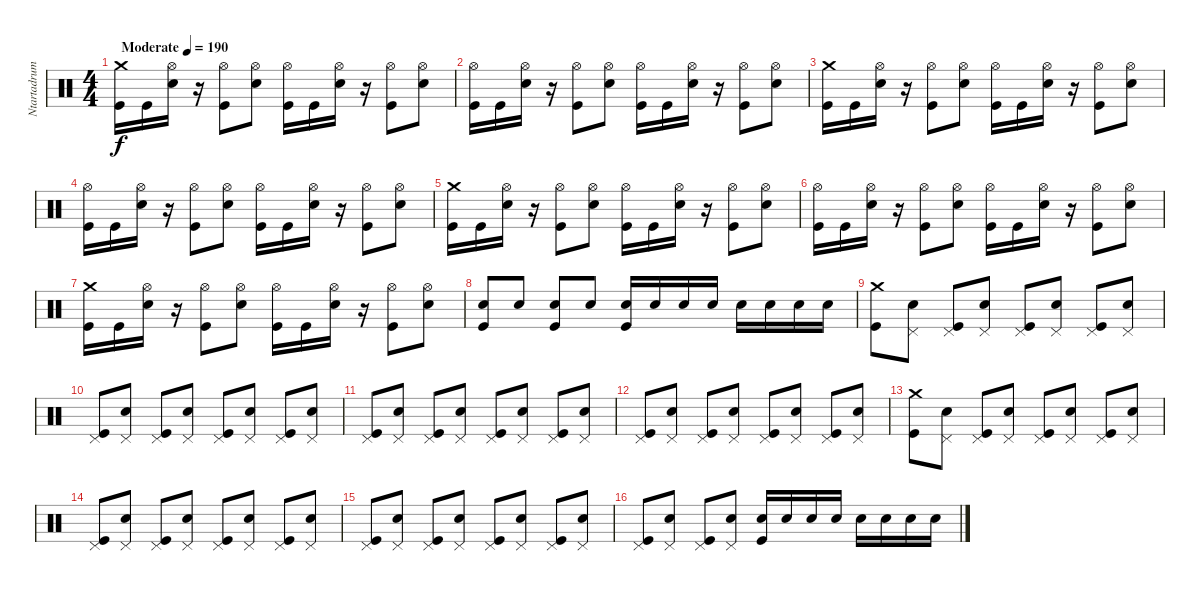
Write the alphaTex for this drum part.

\track ("Ntartadrum" "Ntartadrum") {instrument percussion}
\staff {score}
\articulation defaults
\ts (4 4)
\tempo (190 "Moderate")
\clef neutral
\ks c
("Kick (hit)" "Crash medium (hit)").16{dy f} "Kick (hit)".16 ("Electric Snare (hit)" "Hi-Hat (open)").16 r.16 ("Kick (hit)" "Hi-Hat (open)").8 ("Electric Snare (hit)" "Hi-Hat (open)").8 ("Kick (hit)" "Hi-Hat (open)").16 "Kick (hit)".16 ("Electric Snare (hit)" "Hi-Hat (open)").16 r.16 ("Kick (hit)" "Hi-Hat (open)").8 ("Electric Snare (hit)" "Hi-Hat (open)").8 |
("Kick (hit)" "Hi-Hat (open)").16 "Kick (hit)".16 ("Electric Snare (hit)" "Hi-Hat (open)").16 r.16 ("Kick (hit)" "Hi-Hat (open)").8 ("Electric Snare (hit)" "Hi-Hat (open)").8 ("Kick (hit)" "Hi-Hat (open)").16 "Kick (hit)".16 ("Electric Snare (hit)" "Hi-Hat (open)").16 r.16 ("Kick (hit)" "Hi-Hat (open)").8 ("Electric Snare (hit)" "Hi-Hat (open)").8 |
("Kick (hit)" "Crash medium (hit)").16 "Kick (hit)".16 ("Electric Snare (hit)" "Hi-Hat (open)").16 r.16 ("Kick (hit)" "Hi-Hat (open)").8 ("Electric Snare (hit)" "Hi-Hat (open)").8 ("Kick (hit)" "Hi-Hat (open)").16 "Kick (hit)".16 ("Electric Snare (hit)" "Hi-Hat (open)").16 r.16 ("Kick (hit)" "Hi-Hat (open)").8 ("Electric Snare (hit)" "Hi-Hat (open)").8 |
("Kick (hit)" "Hi-Hat (open)").16 "Kick (hit)".16 ("Electric Snare (hit)" "Hi-Hat (open)").16 r.16 ("Kick (hit)" "Hi-Hat (open)").8 ("Electric Snare (hit)" "Hi-Hat (open)").8 ("Kick (hit)" "Hi-Hat (open)").16 "Kick (hit)".16 ("Electric Snare (hit)" "Hi-Hat (open)").16 r.16 ("Kick (hit)" "Hi-Hat (open)").8 ("Electric Snare (hit)" "Hi-Hat (open)").8 |
("Kick (hit)" "Crash medium (hit)").16 "Kick (hit)".16 ("Electric Snare (hit)" "Hi-Hat (open)").16 r.16 ("Kick (hit)" "Hi-Hat (open)").8 ("Electric Snare (hit)" "Hi-Hat (open)").8 ("Kick (hit)" "Hi-Hat (open)").16 "Kick (hit)".16 ("Electric Snare (hit)" "Hi-Hat (open)").16 r.16 ("Kick (hit)" "Hi-Hat (open)").8 ("Electric Snare (hit)" "Hi-Hat (open)").8 |
("Kick (hit)" "Hi-Hat (open)").16 "Kick (hit)".16 ("Electric Snare (hit)" "Hi-Hat (open)").16 r.16 ("Kick (hit)" "Hi-Hat (open)").8 ("Electric Snare (hit)" "Hi-Hat (open)").8 ("Kick (hit)" "Hi-Hat (open)").16 "Kick (hit)".16 ("Electric Snare (hit)" "Hi-Hat (open)").16 r.16 ("Kick (hit)" "Hi-Hat (open)").8 ("Electric Snare (hit)" "Hi-Hat (open)").8 |
("Kick (hit)" "Crash medium (hit)").16 "Kick (hit)".16 ("Electric Snare (hit)" "Hi-Hat (open)").16 r.16 ("Kick (hit)" "Hi-Hat (open)").8 ("Electric Snare (hit)" "Hi-Hat (open)").8 ("Kick (hit)" "Hi-Hat (open)").16 "Kick (hit)".16 ("Electric Snare (hit)" "Hi-Hat (open)").16 r.16 ("Kick (hit)" "Hi-Hat (open)").8 ("Electric Snare (hit)" "Hi-Hat (open)").8 |
("Kick (hit)" "Electric Snare (hit)").8 "Electric Snare (hit)".8 ("Kick (hit)" "Electric Snare (hit)").8 "Electric Snare (hit)".8 ("Kick (hit)" "Electric Snare (hit)").16 "Electric Snare (hit)".16 "Electric Snare (hit)".16 "Electric Snare (hit)".16 "Electric Snare (hit)".16 "Electric Snare (hit)".16 "Electric Snare (hit)".16 "Electric Snare (hit)".16 |
("Kick (hit)" "Crash medium (hit)").8 ("Electric Snare (hit)" "Pedal Hi-Hat (hit)").8 ("Kick (hit)" "Pedal Hi-Hat (hit)").8 ("Electric Snare (hit)" "Pedal Hi-Hat (hit)").8 ("Kick (hit)" "Pedal Hi-Hat (hit)").8 ("Electric Snare (hit)" "Pedal Hi-Hat (hit)").8 ("Kick (hit)" "Pedal Hi-Hat (hit)").8 ("Electric Snare (hit)" "Pedal Hi-Hat (hit)").8 |
("Kick (hit)" "Pedal Hi-Hat (hit)").8 ("Electric Snare (hit)" "Pedal Hi-Hat (hit)").8 ("Kick (hit)" "Pedal Hi-Hat (hit)").8 ("Electric Snare (hit)" "Pedal Hi-Hat (hit)").8 ("Kick (hit)" "Pedal Hi-Hat (hit)").8 ("Electric Snare (hit)" "Pedal Hi-Hat (hit)").8 ("Kick (hit)" "Pedal Hi-Hat (hit)").8 ("Electric Snare (hit)" "Pedal Hi-Hat (hit)").8 |
("Kick (hit)" "Pedal Hi-Hat (hit)").8 ("Electric Snare (hit)" "Pedal Hi-Hat (hit)").8 ("Kick (hit)" "Pedal Hi-Hat (hit)").8 ("Electric Snare (hit)" "Pedal Hi-Hat (hit)").8 ("Kick (hit)" "Pedal Hi-Hat (hit)").8 ("Electric Snare (hit)" "Pedal Hi-Hat (hit)").8 ("Kick (hit)" "Pedal Hi-Hat (hit)").8 ("Electric Snare (hit)" "Pedal Hi-Hat (hit)").8 |
("Kick (hit)" "Pedal Hi-Hat (hit)").8 ("Electric Snare (hit)" "Pedal Hi-Hat (hit)").8 ("Kick (hit)" "Pedal Hi-Hat (hit)").8 ("Electric Snare (hit)" "Pedal Hi-Hat (hit)").8 ("Kick (hit)" "Pedal Hi-Hat (hit)").8 ("Electric Snare (hit)" "Pedal Hi-Hat (hit)").8 ("Kick (hit)" "Pedal Hi-Hat (hit)").8 ("Electric Snare (hit)" "Pedal Hi-Hat (hit)").8 |
("Kick (hit)" "Crash medium (hit)").8 ("Electric Snare (hit)" "Pedal Hi-Hat (hit)").8 ("Kick (hit)" "Pedal Hi-Hat (hit)").8 ("Electric Snare (hit)" "Pedal Hi-Hat (hit)").8 ("Kick (hit)" "Pedal Hi-Hat (hit)").8 ("Electric Snare (hit)" "Pedal Hi-Hat (hit)").8 ("Kick (hit)" "Pedal Hi-Hat (hit)").8 ("Electric Snare (hit)" "Pedal Hi-Hat (hit)").8 |
("Kick (hit)" "Pedal Hi-Hat (hit)").8 ("Electric Snare (hit)" "Pedal Hi-Hat (hit)").8 ("Kick (hit)" "Pedal Hi-Hat (hit)").8 ("Electric Snare (hit)" "Pedal Hi-Hat (hit)").8 ("Kick (hit)" "Pedal Hi-Hat (hit)").8 ("Electric Snare (hit)" "Pedal Hi-Hat (hit)").8 ("Kick (hit)" "Pedal Hi-Hat (hit)").8 ("Electric Snare (hit)" "Pedal Hi-Hat (hit)").8 |
("Kick (hit)" "Pedal Hi-Hat (hit)").8 ("Electric Snare (hit)" "Pedal Hi-Hat (hit)").8 ("Kick (hit)" "Pedal Hi-Hat (hit)").8 ("Electric Snare (hit)" "Pedal Hi-Hat (hit)").8 ("Kick (hit)" "Pedal Hi-Hat (hit)").8 ("Electric Snare (hit)" "Pedal Hi-Hat (hit)").8 ("Kick (hit)" "Pedal Hi-Hat (hit)").8 ("Electric Snare (hit)" "Pedal Hi-Hat (hit)").8 |
("Kick (hit)" "Pedal Hi-Hat (hit)").8 ("Electric Snare (hit)" "Pedal Hi-Hat (hit)").8 ("Kick (hit)" "Pedal Hi-Hat (hit)").8 ("Electric Snare (hit)" "Pedal Hi-Hat (hit)").8 ("Kick (hit)" "Electric Snare (hit)").16 "Electric Snare (hit)".16 "Electric Snare (hit)".16 "Electric Snare (hit)".16 "Electric Snare (hit)".16 "Electric Snare (hit)".16 "Electric Snare (hit)".16 "Electric Snare (hit)".16
